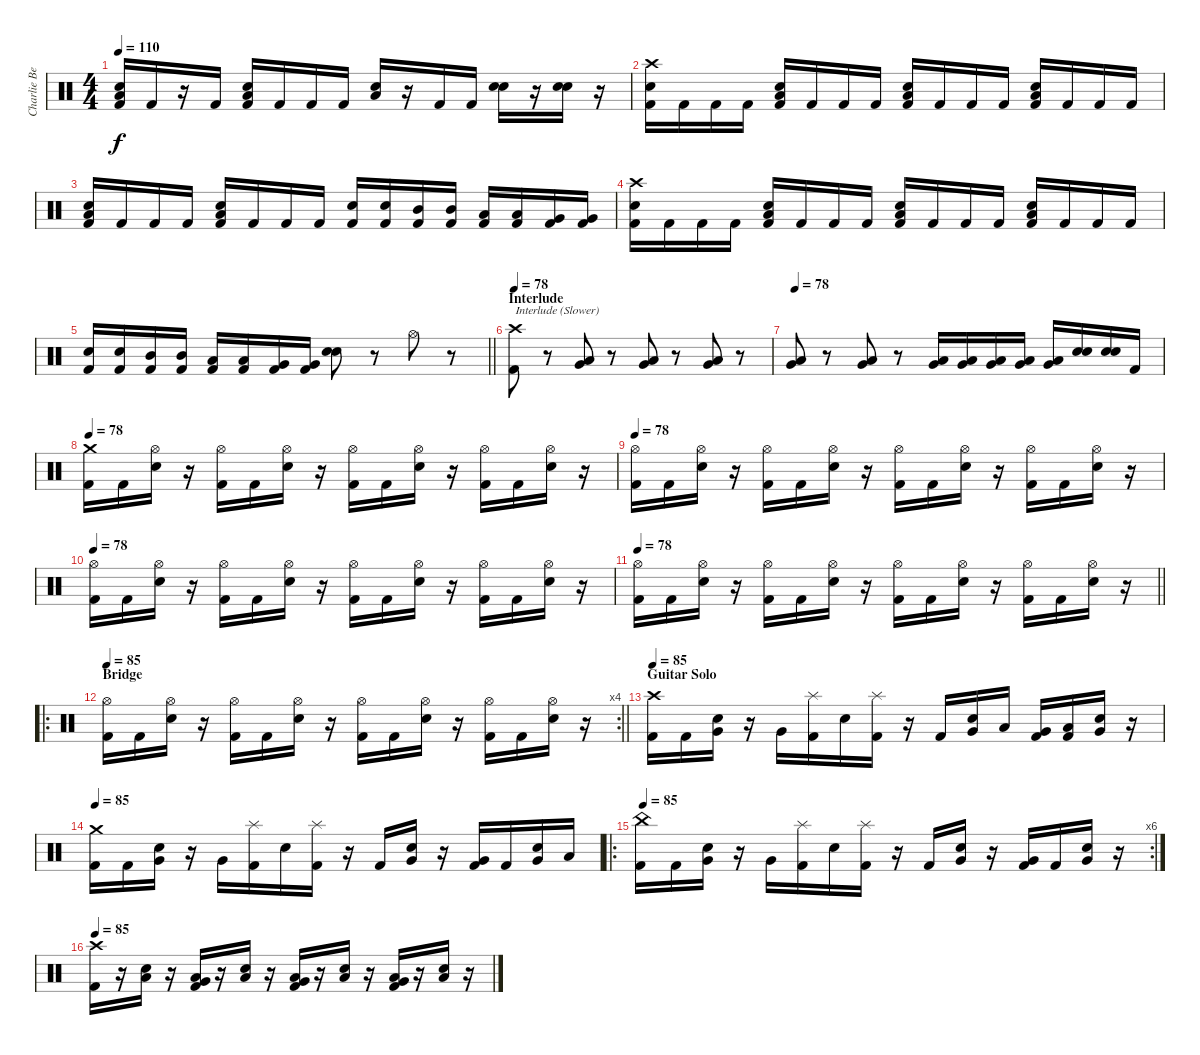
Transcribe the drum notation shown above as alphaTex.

\track ("Charlie Benante" "Charlie Be") {instrument percussion}
\staff {score}
\articulation defaults
\ts (4 4)
\tempo 110
\clef neutral
\ks c
("Low Floor Tom (hit)" "Electric Snare (hit)" "Kick (hit) 2").16{dy f} "Kick (hit) 2".16 r.16 "Kick (hit) 2".16 ("Low Floor Tom (hit)" "Electric Snare (hit)" "Kick (hit) 2").16 "Kick (hit) 2".16 "Kick (hit) 2".16 "Kick (hit) 2".16 ("Low Floor Tom (hit)" "Electric Snare (hit)").16 r.16 "Kick (hit) 2".16 "Kick (hit) 2".16 ("Snare (hit) 2" "Electric Snare (hit)").16 r.16 ("Snare (hit) 2" "Electric Snare (hit)").16 r.16 |
("Crash high (hit)" "Electric Snare (hit)" "Kick (hit) 2").16 "Kick (hit) 2".16 "Kick (hit) 2".16 "Kick (hit) 2".16 ("Low Floor Tom (hit)" "Electric Snare (hit)" "Kick (hit) 2").16 "Kick (hit) 2".16 "Kick (hit) 2".16 "Kick (hit) 2".16 ("Low Floor Tom (hit)" "Electric Snare (hit)" "Kick (hit) 2").16 "Kick (hit) 2".16 "Kick (hit) 2".16 "Kick (hit) 2".16 ("Low Floor Tom (hit)" "Electric Snare (hit)" "Kick (hit) 2").16 "Kick (hit) 2".16 "Kick (hit) 2".16 "Kick (hit) 2".16 |
("Low Floor Tom (hit)" "Electric Snare (hit)" "Kick (hit) 2").16 "Kick (hit) 2".16 "Kick (hit) 2".16 "Kick (hit) 2".16 ("Low Floor Tom (hit)" "Electric Snare (hit)" "Kick (hit) 2").16 "Kick (hit) 2".16 "Kick (hit) 2".16 "Kick (hit) 2".16 ("Electric Snare (hit)" "Kick (hit) 2").16 ("Electric Snare (hit)" "Kick (hit) 2").16 ("Mid Tom (hit)" "Kick (hit) 2").16 ("Mid Tom (hit)" "Kick (hit) 2").16 ("Low Tom (hit)" "Kick (hit) 2").16 ("Low Tom (hit)" "Kick (hit) 2").16 ("Very Low Tom (hit)" "Kick (hit) 2").16 ("Very Low Tom (hit)" "Kick (hit) 2").16 |
("Crash high (hit)" "Electric Snare (hit)" "Kick (hit) 2").16 "Kick (hit) 2".16 "Kick (hit) 2".16 "Kick (hit) 2".16 ("Low Floor Tom (hit)" "Electric Snare (hit)" "Kick (hit) 2").16 "Kick (hit) 2".16 "Kick (hit) 2".16 "Kick (hit) 2".16 ("Low Floor Tom (hit)" "Electric Snare (hit)" "Kick (hit) 2").16 "Kick (hit) 2".16 "Kick (hit) 2".16 "Kick (hit) 2".16 ("Low Floor Tom (hit)" "Electric Snare (hit)" "Kick (hit) 2").16 "Kick (hit) 2".16 "Kick (hit) 2".16 "Kick (hit) 2".16 |
\barLineRight lightlight
("Electric Snare (hit)" "Kick (hit) 2").16 ("Electric Snare (hit)" "Kick (hit) 2").16 ("Mid Tom (hit)" "Kick (hit) 2").16 ("Mid Tom (hit)" "Kick (hit) 2").16 ("Low Tom (hit)" "Kick (hit) 2").16 ("Low Tom (hit)" "Kick (hit) 2").16 ("Very Low Tom (hit)" "Kick (hit) 2").16 ("Very Low Tom (hit)" "Kick (hit) 2").16 ("Snare (hit) 2" "Electric Snare (hit)").8 r.8 "Hi-Hat (open)".8 r.8 |
\section ("" "Interlude")
\tempo 78
("Crash high (hit)" "Kick (hit) 2").8{txt "Interlude (Slower)"} r.8 ("Very Low Tom (hit)" "Low Floor Tom (hit)").8 r.8 ("Very Low Tom (hit)" "Low Floor Tom (hit)").8 r.8 ("Very Low Tom (hit)" "Low Floor Tom (hit)").8 r.8 |
\tempo 78
("Very Low Tom (hit)" "Low Floor Tom (hit)").8 r.8 ("Very Low Tom (hit)" "Low Floor Tom (hit)").8 r.8 ("Very Low Tom (hit)" "Low Floor Tom (hit)").16 ("Very Low Tom (hit)" "Low Floor Tom (hit)").16 ("Very Low Tom (hit)" "Low Floor Tom (hit)").16 ("Very Low Tom (hit)" "Low Floor Tom (hit)").16 ("Very Low Tom (hit)" "Low Floor Tom (hit)").16 ("Snare (hit) 2" "Electric Snare (hit)").16 ("Snare (hit) 2" "Electric Snare (hit)").16 "Kick (hit) 2".16 |
\tempo 78
("Crash medium (hit)" "Kick (hit) 2").16 "Kick (hit) 2".16 ("Hi-Hat (open)" "Electric Snare (hit)").16 r.16 ("Hi-Hat (open)" "Kick (hit) 2").16 "Kick (hit) 2".16 ("Hi-Hat (open)" "Electric Snare (hit)").16 r.16 ("Hi-Hat (open)" "Kick (hit) 2").16 "Kick (hit) 2".16 ("Hi-Hat (open)" "Electric Snare (hit)").16 r.16 ("Hi-Hat (open)" "Kick (hit) 2").16 "Kick (hit) 2".16 ("Hi-Hat (open)" "Electric Snare (hit)").16 r.16 |
\tempo 78
("Hi-Hat (open)" "Kick (hit) 2").16 "Kick (hit) 2".16 ("Hi-Hat (open)" "Electric Snare (hit)").16 r.16 ("Hi-Hat (open)" "Kick (hit) 2").16 "Kick (hit) 2".16 ("Hi-Hat (open)" "Electric Snare (hit)").16 r.16 ("Hi-Hat (open)" "Kick (hit) 2").16 "Kick (hit) 2".16 ("Hi-Hat (open)" "Electric Snare (hit)").16 r.16 ("Hi-Hat (open)" "Kick (hit) 2").16 "Kick (hit) 2".16 ("Hi-Hat (open)" "Electric Snare (hit)").16 r.16 |
\tempo 78
("Hi-Hat (open)" "Kick (hit) 2").16 "Kick (hit) 2".16 ("Hi-Hat (open)" "Electric Snare (hit)").16 r.16 ("Hi-Hat (open)" "Kick (hit) 2").16 "Kick (hit) 2".16 ("Hi-Hat (open)" "Electric Snare (hit)").16 r.16 ("Hi-Hat (open)" "Kick (hit) 2").16 "Kick (hit) 2".16 ("Hi-Hat (open)" "Electric Snare (hit)").16 r.16 ("Hi-Hat (open)" "Kick (hit) 2").16 "Kick (hit) 2".16 ("Hi-Hat (open)" "Electric Snare (hit)").16 r.16 |
\tempo 78
\barLineRight lightlight
("Hi-Hat (open)" "Kick (hit) 2").16 "Kick (hit) 2".16 ("Hi-Hat (open)" "Electric Snare (hit)").16 r.16 ("Hi-Hat (open)" "Kick (hit) 2").16 "Kick (hit) 2".16 ("Hi-Hat (open)" "Electric Snare (hit)").16 r.16 ("Hi-Hat (open)" "Kick (hit) 2").16 "Kick (hit) 2".16 ("Hi-Hat (open)" "Electric Snare (hit)").16 r.16 ("Hi-Hat (open)" "Kick (hit) 2").16 "Kick (hit) 2".16 ("Hi-Hat (open)" "Electric Snare (hit)").16 r.16 |
\ro
\rc 4
\section ("" "Bridge")
\tempo 85
\barLineRight lightlight
("Hi-Hat (open)" "Kick (hit) 2").16 "Kick (hit) 2".16 ("Hi-Hat (open)" "Electric Snare (hit)").16 r.16 ("Hi-Hat (open)" "Kick (hit) 2").16 "Kick (hit) 2".16 ("Hi-Hat (open)" "Electric Snare (hit)").16 r.16 ("Hi-Hat (open)" "Kick (hit) 2").16 "Kick (hit) 2".16 ("Hi-Hat (open)" "Electric Snare (hit)").16 r.16 ("Hi-Hat (open)" "Kick (hit) 2").16 "Kick (hit) 2".16 ("Hi-Hat (open)" "Electric Snare (hit)").16 r.16 |
\section ("" "Guitar Solo")
\tempo 85
("Crash high (hit)" "Kick (hit) 2").16 "Kick (hit) 2".16 ("Very Low Tom (hit)" "Electric Snare (hit)").16 r.16 "Very Low Tom (hit)".16 ("Splash (hit)" "Kick (hit) 2").16 "Electric Snare (hit)".16 ("Splash (hit)" "Kick (hit) 2").16 r.16 "Kick (hit) 2".16 ("Very Low Tom (hit)" "Electric Snare (hit)").16 "Low Floor Tom (hit)".16 ("Very Low Tom (hit)" "Kick (hit) 2").16 ("Low Floor Tom (hit)" "Kick (hit) 2").16 ("Very Low Tom (hit)" "Electric Snare (hit)").16 r.16 |
\tempo 85
("Crash medium (hit)" "Kick (hit) 2").16 "Kick (hit) 2".16 ("Very Low Tom (hit)" "Electric Snare (hit)").16 r.16 "Very Low Tom (hit)".16 ("Splash (hit)" "Kick (hit) 2").16 "Electric Snare (hit)".16 ("Splash (hit)" "Kick (hit) 2").16 r.16 "Kick (hit) 2".16 ("Very Low Tom (hit)" "Electric Snare (hit)").16 r.16 ("Very Low Tom (hit)" "Kick (hit) 2").16 "Kick (hit) 2".16 ("Very Low Tom (hit)" "Electric Snare (hit)").16 "Low Floor Tom (hit)".16 |
\ro
\rc 6
\tempo 85
("China (hit)" "Kick (hit) 2").16 "Kick (hit) 2".16 ("Very Low Tom (hit)" "Electric Snare (hit)").16 r.16 "Very Low Tom (hit)".16 ("Splash (hit)" "Kick (hit) 2").16 "Electric Snare (hit)".16 ("Splash (hit)" "Kick (hit) 2").16 r.16 "Kick (hit) 2".16 ("Very Low Tom (hit)" "Electric Snare (hit)").16 r.16 ("Very Low Tom (hit)" "Kick (hit) 2").16 "Kick (hit) 2".16 ("Very Low Tom (hit)" "Electric Snare (hit)").16 r.16 |
\tempo 85
("Crash high (hit)" "Kick (hit) 2").16 r.16 ("Low Floor Tom (hit)" "Electric Snare (hit)").16 r.16 ("Low Floor Tom (hit)" "Very Low Tom (hit)" "Kick (hit) 2").16 r.16 ("Low Floor Tom (hit)" "Electric Snare (hit)").16 r.16 ("Low Floor Tom (hit)" "Very Low Tom (hit)" "Kick (hit) 2").16 r.16 ("Low Floor Tom (hit)" "Electric Snare (hit)").16 r.16 ("Low Floor Tom (hit)" "Very Low Tom (hit)" "Kick (hit) 2").16 r.16 ("Low Floor Tom (hit)" "Electric Snare (hit)").16 r.16
